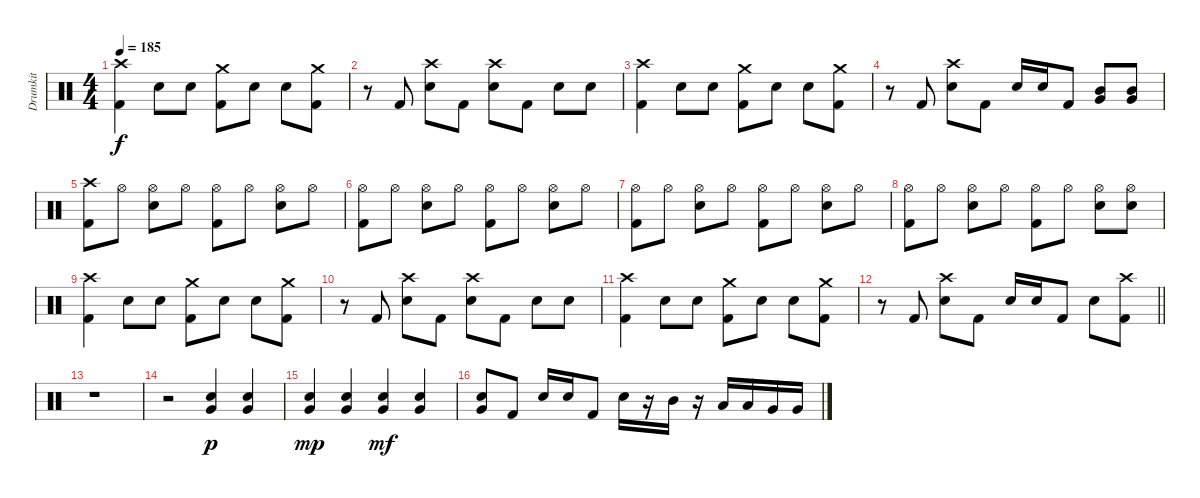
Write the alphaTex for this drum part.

\track ("Drumkit" "Drumkit") {instrument percussion}
\staff {score}
\articulation defaults
\ts (4 4)
\tempo 185
\clef neutral
\ks c
("Crash high (hit)" "Kick (hit) 2").4{dy f} "Electric Snare (hit)".8 "Electric Snare (hit)".8 ("Crash medium (hit)" "Kick (hit) 2").8 "Electric Snare (hit)".8 "Electric Snare (hit)".8 ("Crash medium (hit)" "Kick (hit) 2").8 |
r.8 "Kick (hit) 2".8 ("Crash high (hit)" "Electric Snare (hit)").8 "Kick (hit) 2".8 ("Crash high (hit)" "Electric Snare (hit)").8 "Kick (hit) 2".8 "Electric Snare (hit)".8 "Electric Snare (hit)".8 |
("Crash high (hit)" "Kick (hit) 2").4 "Electric Snare (hit)".8 "Electric Snare (hit)".8 ("Crash medium (hit)" "Kick (hit) 2").8 "Electric Snare (hit)".8 "Electric Snare (hit)".8 ("Crash medium (hit)" "Kick (hit) 2").8 |
r.8 "Kick (hit) 2".8 ("Crash high (hit)" "Electric Snare (hit)").8 "Kick (hit) 2".8 "Electric Snare (hit)".16 "Electric Snare (hit)".16 "Kick (hit) 2".8 ("Mid Tom (hit)" "Very Low Tom (hit)").8 ("Mid Tom (hit)" "Very Low Tom (hit)").8 |
("Crash high (hit)" "Kick (hit) 2").8 "Hi-Hat (open)".8 ("Hi-Hat (open)" "Electric Snare (hit)").8 "Hi-Hat (open)".8 ("Hi-Hat (open)" "Kick (hit) 2").8 "Hi-Hat (open)".8 ("Hi-Hat (open)" "Electric Snare (hit)").8 "Hi-Hat (open)".8 |
("Hi-Hat (open)" "Kick (hit) 2").8 "Hi-Hat (open)".8 ("Hi-Hat (open)" "Electric Snare (hit)").8 "Hi-Hat (open)".8 ("Hi-Hat (open)" "Kick (hit) 2").8 "Hi-Hat (open)".8 ("Hi-Hat (open)" "Electric Snare (hit)").8 "Hi-Hat (open)".8 |
("Hi-Hat (open)" "Kick (hit) 2").8 "Hi-Hat (open)".8 ("Hi-Hat (open)" "Electric Snare (hit)").8 "Hi-Hat (open)".8 ("Hi-Hat (open)" "Kick (hit) 2").8 "Hi-Hat (open)".8 ("Hi-Hat (open)" "Electric Snare (hit)").8 "Hi-Hat (open)".8 |
("Hi-Hat (open)" "Kick (hit) 2").8 "Hi-Hat (open)".8 ("Hi-Hat (open)" "Electric Snare (hit)").8 "Hi-Hat (open)".8 ("Hi-Hat (open)" "Kick (hit) 2").8 "Hi-Hat (open)".8 ("Hi-Hat (open)" "Electric Snare (hit)").8 ("Hi-Hat (open)" "Electric Snare (hit)").8 |
("Crash high (hit)" "Kick (hit) 2").4 "Electric Snare (hit)".8 "Electric Snare (hit)".8 ("Crash medium (hit)" "Kick (hit) 2").8 "Electric Snare (hit)".8 "Electric Snare (hit)".8 ("Crash medium (hit)" "Kick (hit) 2").8 |
r.8 "Kick (hit) 2".8 ("Crash high (hit)" "Electric Snare (hit)").8 "Kick (hit) 2".8 ("Crash high (hit)" "Electric Snare (hit)").8 "Kick (hit) 2".8 "Electric Snare (hit)".8 "Electric Snare (hit)".8 |
("Crash high (hit)" "Kick (hit) 2").4 "Electric Snare (hit)".8 "Electric Snare (hit)".8 ("Crash medium (hit)" "Kick (hit) 2").8 "Electric Snare (hit)".8 "Electric Snare (hit)".8 ("Crash medium (hit)" "Kick (hit) 2").8 |
\barLineRight lightlight
r.8 "Kick (hit) 2".8 ("Crash high (hit)" "Electric Snare (hit)").8 "Kick (hit) 2".8 "Electric Snare (hit)".16 "Electric Snare (hit)".16 "Kick (hit) 2".8 "Electric Snare (hit)".8 ("Crash high (hit)" "Kick (hit) 2").8 |
r.1 |
r.2 ("Electric Snare (hit)" "Very Low Tom (hit)").4{dy p} ("Electric Snare (hit)" "Very Low Tom (hit)").4 |
("Electric Snare (hit)" "Very Low Tom (hit)").4{dy mp} ("Electric Snare (hit)" "Very Low Tom (hit)").4 ("Electric Snare (hit)" "Very Low Tom (hit)").4{dy mf} ("Electric Snare (hit)" "Very Low Tom (hit)").4 |
("Electric Snare (hit)" "Very Low Tom (hit)").8 "Kick (hit) 2".8 "Electric Snare (hit)".16 "Electric Snare (hit)".16 "Kick (hit) 2".8 "Electric Snare (hit)".16 r.16 "Mid Tom (hit)".16 r.16 "Low Tom (hit)".16 "Low Tom (hit)".16 "Very Low Tom (hit)".16 "Very Low Tom (hit)".16
